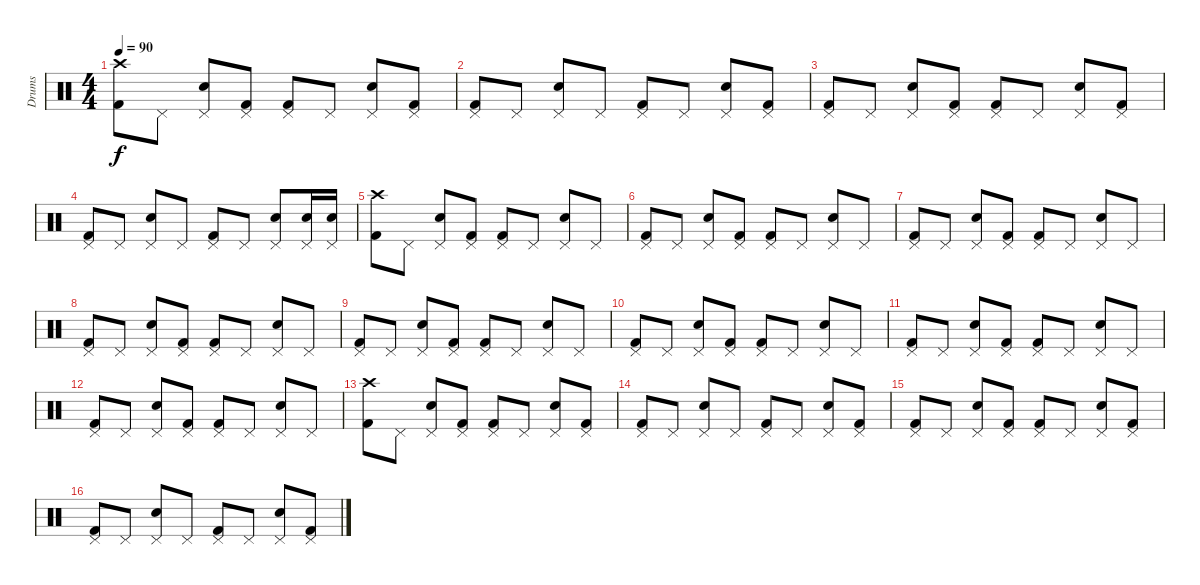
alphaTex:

\track ("Drums" "Drums") {instrument percussion}
\staff {score}
\articulation defaults
\ts (4 4)
\tempo 90
\clef neutral
\ks c
("Crash high (hit)" "Kick (hit) 2").8{dy f} "Pedal Hi-Hat (hit)".8 ("Pedal Hi-Hat (hit)" "Electric Snare (hit)").8 ("Pedal Hi-Hat (hit)" "Kick (hit) 2").8 ("Pedal Hi-Hat (hit)" "Kick (hit) 2").8 "Pedal Hi-Hat (hit)".8 ("Pedal Hi-Hat (hit)" "Electric Snare (hit)").8 ("Pedal Hi-Hat (hit)" "Kick (hit) 2").8 |
("Pedal Hi-Hat (hit)" "Kick (hit) 2").8 "Pedal Hi-Hat (hit)".8 ("Pedal Hi-Hat (hit)" "Electric Snare (hit)").8 "Pedal Hi-Hat (hit)".8 ("Pedal Hi-Hat (hit)" "Kick (hit) 2").8 "Pedal Hi-Hat (hit)".8 ("Pedal Hi-Hat (hit)" "Electric Snare (hit)").8 ("Pedal Hi-Hat (hit)" "Kick (hit) 2").8 |
("Pedal Hi-Hat (hit)" "Kick (hit) 2").8 "Pedal Hi-Hat (hit)".8 ("Pedal Hi-Hat (hit)" "Electric Snare (hit)").8 ("Pedal Hi-Hat (hit)" "Kick (hit) 2").8 ("Pedal Hi-Hat (hit)" "Kick (hit) 2").8 "Pedal Hi-Hat (hit)".8 ("Pedal Hi-Hat (hit)" "Electric Snare (hit)").8 ("Pedal Hi-Hat (hit)" "Kick (hit) 2").8 |
("Pedal Hi-Hat (hit)" "Kick (hit) 2").8 "Pedal Hi-Hat (hit)".8 ("Pedal Hi-Hat (hit)" "Electric Snare (hit)").8 "Pedal Hi-Hat (hit)".8 ("Pedal Hi-Hat (hit)" "Kick (hit) 2").8 "Pedal Hi-Hat (hit)".8 ("Pedal Hi-Hat (hit)" "Electric Snare (hit)").8 ("Pedal Hi-Hat (hit)" "Electric Snare (hit)").16 ("Pedal Hi-Hat (hit)" "Electric Snare (hit)").16 |
("Crash high (hit)" "Kick (hit) 2").8 "Pedal Hi-Hat (hit)".8 ("Pedal Hi-Hat (hit)" "Electric Snare (hit)").8 ("Pedal Hi-Hat (hit)" "Kick (hit) 2").8 ("Pedal Hi-Hat (hit)" "Kick (hit) 2").8 "Pedal Hi-Hat (hit)".8 ("Pedal Hi-Hat (hit)" "Electric Snare (hit)").8 "Pedal Hi-Hat (hit)".8 |
("Pedal Hi-Hat (hit)" "Kick (hit) 2").8 "Pedal Hi-Hat (hit)".8 ("Pedal Hi-Hat (hit)" "Electric Snare (hit)").8 ("Pedal Hi-Hat (hit)" "Kick (hit) 2").8 ("Pedal Hi-Hat (hit)" "Kick (hit) 2").8 "Pedal Hi-Hat (hit)".8 ("Pedal Hi-Hat (hit)" "Electric Snare (hit)").8 "Pedal Hi-Hat (hit)".8 |
("Pedal Hi-Hat (hit)" "Kick (hit) 2").8 "Pedal Hi-Hat (hit)".8 ("Pedal Hi-Hat (hit)" "Electric Snare (hit)").8 ("Pedal Hi-Hat (hit)" "Kick (hit) 2").8 ("Pedal Hi-Hat (hit)" "Kick (hit) 2").8 "Pedal Hi-Hat (hit)".8 ("Pedal Hi-Hat (hit)" "Electric Snare (hit)").8 "Pedal Hi-Hat (hit)".8 |
("Pedal Hi-Hat (hit)" "Kick (hit) 2").8 "Pedal Hi-Hat (hit)".8 ("Pedal Hi-Hat (hit)" "Electric Snare (hit)").8 ("Pedal Hi-Hat (hit)" "Kick (hit) 2").8 ("Pedal Hi-Hat (hit)" "Kick (hit) 2").8 "Pedal Hi-Hat (hit)".8 ("Pedal Hi-Hat (hit)" "Electric Snare (hit)").8 "Pedal Hi-Hat (hit)".8 |
("Pedal Hi-Hat (hit)" "Kick (hit) 2").8 "Pedal Hi-Hat (hit)".8 ("Pedal Hi-Hat (hit)" "Electric Snare (hit)").8 ("Pedal Hi-Hat (hit)" "Kick (hit) 2").8 ("Pedal Hi-Hat (hit)" "Kick (hit) 2").8 "Pedal Hi-Hat (hit)".8 ("Pedal Hi-Hat (hit)" "Electric Snare (hit)").8 "Pedal Hi-Hat (hit)".8 |
("Pedal Hi-Hat (hit)" "Kick (hit) 2").8 "Pedal Hi-Hat (hit)".8 ("Pedal Hi-Hat (hit)" "Electric Snare (hit)").8 ("Pedal Hi-Hat (hit)" "Kick (hit) 2").8 ("Pedal Hi-Hat (hit)" "Kick (hit) 2").8 "Pedal Hi-Hat (hit)".8 ("Pedal Hi-Hat (hit)" "Electric Snare (hit)").8 "Pedal Hi-Hat (hit)".8 |
("Pedal Hi-Hat (hit)" "Kick (hit) 2").8 "Pedal Hi-Hat (hit)".8 ("Pedal Hi-Hat (hit)" "Electric Snare (hit)").8 ("Pedal Hi-Hat (hit)" "Kick (hit) 2").8 ("Pedal Hi-Hat (hit)" "Kick (hit) 2").8 "Pedal Hi-Hat (hit)".8 ("Pedal Hi-Hat (hit)" "Electric Snare (hit)").8 "Pedal Hi-Hat (hit)".8 |
("Pedal Hi-Hat (hit)" "Kick (hit) 2").8 "Pedal Hi-Hat (hit)".8 ("Pedal Hi-Hat (hit)" "Electric Snare (hit)").8 ("Pedal Hi-Hat (hit)" "Kick (hit) 2").8 ("Pedal Hi-Hat (hit)" "Kick (hit) 2").8 "Pedal Hi-Hat (hit)".8 ("Pedal Hi-Hat (hit)" "Electric Snare (hit)").8 "Pedal Hi-Hat (hit)".8 |
("Crash high (hit)" "Kick (hit) 2").8 "Pedal Hi-Hat (hit)".8 ("Pedal Hi-Hat (hit)" "Electric Snare (hit)").8 ("Pedal Hi-Hat (hit)" "Kick (hit) 2").8 ("Pedal Hi-Hat (hit)" "Kick (hit) 2").8 "Pedal Hi-Hat (hit)".8 ("Pedal Hi-Hat (hit)" "Electric Snare (hit)").8 ("Pedal Hi-Hat (hit)" "Kick (hit) 2").8 |
("Pedal Hi-Hat (hit)" "Kick (hit) 2").8 "Pedal Hi-Hat (hit)".8 ("Pedal Hi-Hat (hit)" "Electric Snare (hit)").8 "Pedal Hi-Hat (hit)".8 ("Pedal Hi-Hat (hit)" "Kick (hit) 2").8 "Pedal Hi-Hat (hit)".8 ("Pedal Hi-Hat (hit)" "Electric Snare (hit)").8 ("Pedal Hi-Hat (hit)" "Kick (hit) 2").8 |
("Pedal Hi-Hat (hit)" "Kick (hit) 2").8 "Pedal Hi-Hat (hit)".8 ("Pedal Hi-Hat (hit)" "Electric Snare (hit)").8 ("Pedal Hi-Hat (hit)" "Kick (hit) 2").8 ("Pedal Hi-Hat (hit)" "Kick (hit) 2").8 "Pedal Hi-Hat (hit)".8 ("Pedal Hi-Hat (hit)" "Electric Snare (hit)").8 ("Pedal Hi-Hat (hit)" "Kick (hit) 2").8 |
("Pedal Hi-Hat (hit)" "Kick (hit) 2").8 "Pedal Hi-Hat (hit)".8 ("Pedal Hi-Hat (hit)" "Electric Snare (hit)").8 "Pedal Hi-Hat (hit)".8 ("Pedal Hi-Hat (hit)" "Kick (hit) 2").8 "Pedal Hi-Hat (hit)".8 ("Pedal Hi-Hat (hit)" "Electric Snare (hit)").8 ("Pedal Hi-Hat (hit)" "Kick (hit) 2").8
